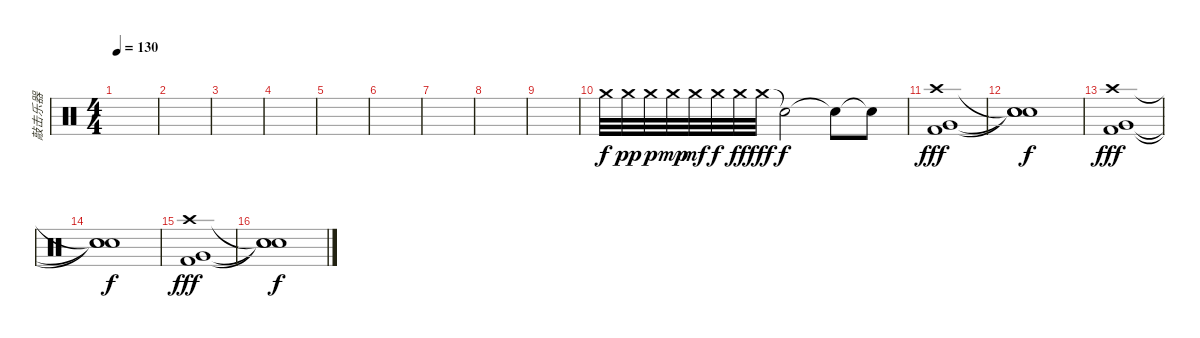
\track ("敲击乐器" "敲击乐器") {instrument percussion}
\staff {score}
\articulation defaults
\ts (4 4)
\tempo 130
\clef neutral
\ks c
|
|
|
|
|
|
|
|
|
"Crash medium (hit)".32 "Crash medium (hit)".32{dy pp} "Crash medium (hit)".32{dy p} "Crash medium (hit)".32{dy mp} "Crash medium (hit)".32{dy mf} "Crash medium (hit)".32{dy f} "Crash medium (hit)".32{dy ff} "Crash medium (hit)".32{dy fff} "Snare (hit)"{t}.2{dy f} "Snare (hit)"{t}.8 "Snare (hit)"{t}.8 |
("Very Low Tom (hit)" "Crash high (hit)" "Kick (hit) 2").1{dy fff} |
("Snare (hit)"{t} "Snare (hit)"{t} "Snare (hit)"{t}).1{dy f} |
("Very Low Tom (hit)" "Kick (hit) 2" "Crash high (hit)").1{dy fff} |
("Snare (hit)"{t} "Snare (hit)"{t} "Snare (hit)"{t}).1{dy f} |
("Very Low Tom (hit)" "Kick (hit) 2" "Crash high (hit)").1{dy fff} |
("Snare (hit)"{t} "Snare (hit)"{t} "Snare (hit)"{t}).1{dy f}
